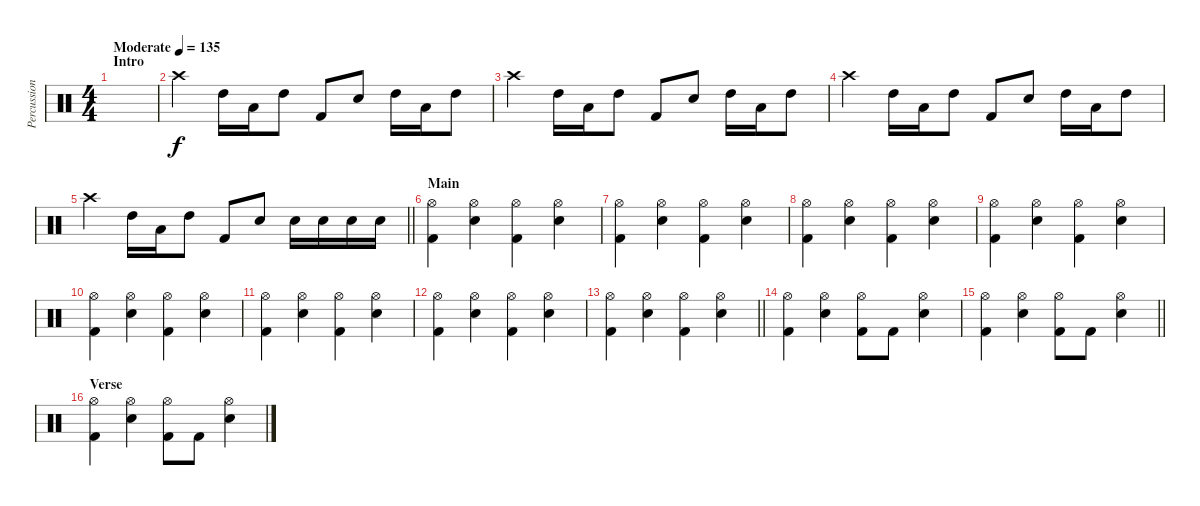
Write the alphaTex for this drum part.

\track ("Percussion" "Percussion") {instrument percussion}
\staff {score}
\articulation defaults
\ts (4 4)
\section ("" "Intro")
\tempo (135 "Moderate")
\clef neutral
\ks c
|
"Crash high (hit)".4 "High Tom (hit)".16 "Low Tom (hit)".16 "High Tom (hit)".8 "Kick (hit) 2".8 "Snare (hit) 2".8 "High Tom (hit)".16 "Low Tom (hit)".16 "High Tom (hit)".8 |
"Crash high (hit)".4 "High Tom (hit)".16 "Low Tom (hit)".16 "High Tom (hit)".8 "Kick (hit) 2".8 "Snare (hit) 2".8 "High Tom (hit)".16 "Low Tom (hit)".16 "High Tom (hit)".8 |
"Crash high (hit)".4 "High Tom (hit)".16 "Low Tom (hit)".16 "High Tom (hit)".8 "Kick (hit) 2".8 "Snare (hit) 2".8 "High Tom (hit)".16 "Low Tom (hit)".16 "High Tom (hit)".8 |
\barLineRight lightlight "Crash high (hit)".4 "High Tom (hit)".16 "Low Tom (hit)".16 "High Tom (hit)".8 "Kick (hit) 2".8 "Snare (hit) 2".8 "Snare (hit) 2".16 "Snare (hit) 2".16 "Snare (hit) 2".16 "Snare (hit) 2".16
|
\section ("" "Main")
("Hi-Hat (open)" "Kick (hit) 2").4 ("Hi-Hat (open)" "Snare (hit) 2").4 ("Hi-Hat (open)" "Kick (hit) 2").4 ("Hi-Hat (open)" "Snare (hit) 2").4 |
("Hi-Hat (open)" "Kick (hit) 2").4 ("Hi-Hat (open)" "Snare (hit) 2").4 ("Hi-Hat (open)" "Kick (hit) 2").4 ("Hi-Hat (open)" "Snare (hit) 2").4 |
("Hi-Hat (open)" "Kick (hit) 2").4 ("Hi-Hat (open)" "Snare (hit) 2").4 ("Hi-Hat (open)" "Kick (hit) 2").4 ("Hi-Hat (open)" "Snare (hit) 2").4 |
("Hi-Hat (open)" "Kick (hit) 2").4 ("Hi-Hat (open)" "Snare (hit) 2").4 ("Hi-Hat (open)" "Kick (hit) 2").4 ("Hi-Hat (open)" "Snare (hit) 2").4 |
("Hi-Hat (open)" "Kick (hit) 2").4 ("Hi-Hat (open)" "Snare (hit) 2").4 ("Hi-Hat (open)" "Kick (hit) 2").4 ("Hi-Hat (open)" "Snare (hit) 2").4 |
("Hi-Hat (open)" "Kick (hit) 2").4 ("Hi-Hat (open)" "Snare (hit) 2").4 ("Hi-Hat (open)" "Kick (hit) 2").4 ("Hi-Hat (open)" "Snare (hit) 2").4 |
("Hi-Hat (open)" "Kick (hit) 2").4 ("Hi-Hat (open)" "Snare (hit) 2").4 ("Hi-Hat (open)" "Kick (hit) 2").4 ("Hi-Hat (open)" "Snare (hit) 2").4 |
\barLineRight lightlight
("Hi-Hat (open)" "Kick (hit) 2").4 ("Hi-Hat (open)" "Snare (hit) 2").4 ("Hi-Hat (open)" "Kick (hit) 2").4 ("Hi-Hat (open)" "Snare (hit) 2").4 |
("Hi-Hat (open)" "Kick (hit) 2").4 ("Hi-Hat (open)" "Snare (hit) 2").4 ("Hi-Hat (open)" "Kick (hit) 2").8 "Kick (hit) 2".8 ("Hi-Hat (open)" "Snare (hit) 2").4 |
\barLineRight lightlight
("Hi-Hat (open)" "Kick (hit) 2").4 ("Hi-Hat (open)" "Snare (hit) 2").4 ("Hi-Hat (open)" "Kick (hit) 2").8 "Kick (hit) 2".8 ("Hi-Hat (open)" "Snare (hit) 2").4 |
\section ("" "Verse")
("Hi-Hat (open)" "Kick (hit) 2").4 ("Hi-Hat (open)" "Snare (hit) 2").4 ("Hi-Hat (open)" "Kick (hit) 2").8 "Kick (hit) 2".8 ("Hi-Hat (open)" "Snare (hit) 2").4
